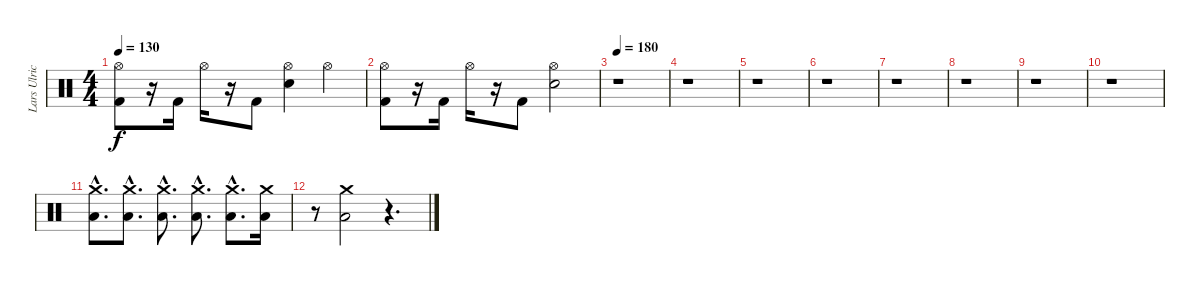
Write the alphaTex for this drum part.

\track ("Lars Ulrich" "Lars Ulric") {instrument percussion}
\staff {score}
\articulation defaults
\ts (4 4)
\tempo 130
\clef neutral
\ks c
("Hi-Hat (open)" "Kick (hit) 2").8{dy f} r.16 "Kick (hit) 2".16 "Hi-Hat (open)".16 r.16 "Kick (hit) 2".8 ("Hi-Hat (open)" "Electric Snare (hit)").4 "Hi-Hat (open)".4 |
("Hi-Hat (open)" "Kick (hit) 2").8 r.16 "Kick (hit) 2".16 "Hi-Hat (open)".16 r.16 "Kick (hit) 2".8 ("Hi-Hat (open)" "Electric Snare (hit)").2 |
\tempo 180
r.1 |
r.1 |
r.1 |
r.1 |
r.1 |
r.1 |
r.1 |
r.1 |
("Crash medium (hit)"{hac} "Low Floor Tom (hit)"{hac}).8{d} ("Crash medium (hit)"{hac} "Low Floor Tom (hit)"{hac}).8{d} ("Crash medium (hit)"{hac} "Low Floor Tom (hit)"{hac}).8{d} ("Crash medium (hit)"{hac} "Low Floor Tom (hit)"{hac}).8{d} ("Crash medium (hit)"{hac} "Low Floor Tom (hit)"{hac}).8{d} ("Crash medium (hit)" "Low Floor Tom (hit)").16 |
r.8 ("Crash medium (hit)" "Low Floor Tom (hit)").2 r.4{d}
